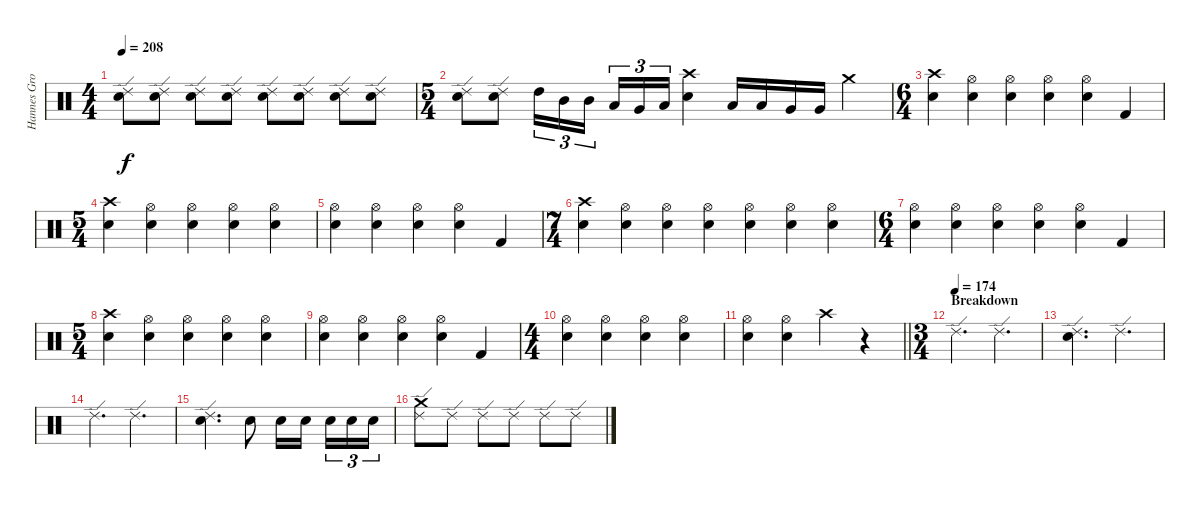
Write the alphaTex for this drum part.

\track ("Hannes Grossmann" "Hannes Gro") {instrument percussion}
\staff {score}
\articulation defaults
\ts (4 4)
\tempo 208
\clef neutral
\ks c
("Ride (edge) 2" "Electric Snare (hit)").8{dy f} ("Ride (edge) 2" "Electric Snare (hit)").8 ("Ride (edge) 2" "Electric Snare (hit)").8 ("Ride (edge) 2" "Electric Snare (hit)").8 ("Ride (edge) 2" "Electric Snare (hit)").8 ("Ride (edge) 2" "Electric Snare (hit)").8 ("Ride (edge) 2" "Electric Snare (hit)").8 ("Ride (edge) 2" "Electric Snare (hit)").8 |
\ts (5 4)
("Ride (edge) 2" "Electric Snare (hit)").8 ("Ride (edge) 2" "Electric Snare (hit)").8 "High Tom (hit)".16{tu (3 2)} "Mid Tom (hit)".16{tu (3 2)} "Mid Tom (hit)".16{tu (3 2) beam splitsecondary} "Low Tom (hit)".16{tu (3 2)} "Very Low Tom (hit)".16{tu (3 2)} "Low Floor Tom (hit)".16{tu (3 2)} ("Crash high (hit)" "Electric Snare (hit)").4 "Low Tom (hit)".16 "Low Tom (hit)".16 "Very Low Tom (hit)".16 "Very Low Tom (hit)".16 "Crash medium (hit)".4 |
\ts (6 4)
("Crash high (hit)" "Electric Snare (hit)").4 ("Hi-Hat (open)" "Electric Snare (hit)").4 ("Hi-Hat (open)" "Electric Snare (hit)").4 ("Hi-Hat (open)" "Electric Snare (hit)").4 ("Hi-Hat (open)" "Electric Snare (hit)").4 "Kick (hit) 2".4 |
\ts (5 4)
("Crash high (hit)" "Electric Snare (hit)").4 ("Hi-Hat (open)" "Electric Snare (hit)").4 ("Hi-Hat (open)" "Electric Snare (hit)").4 ("Hi-Hat (open)" "Electric Snare (hit)").4 ("Hi-Hat (open)" "Electric Snare (hit)").4 |
("Hi-Hat (open)" "Electric Snare (hit)").4 ("Hi-Hat (open)" "Electric Snare (hit)").4 ("Hi-Hat (open)" "Electric Snare (hit)").4 ("Hi-Hat (open)" "Electric Snare (hit)").4 "Kick (hit) 2".4 |
\ts (7 4)
("Crash high (hit)" "Electric Snare (hit)").4 ("Hi-Hat (open)" "Electric Snare (hit)").4 ("Hi-Hat (open)" "Electric Snare (hit)").4 ("Hi-Hat (open)" "Electric Snare (hit)").4 ("Hi-Hat (open)" "Electric Snare (hit)").4 ("Hi-Hat (open)" "Electric Snare (hit)").4 ("Hi-Hat (open)" "Electric Snare (hit)").4 |
\ts (6 4)
("Hi-Hat (open)" "Electric Snare (hit)").4 ("Hi-Hat (open)" "Electric Snare (hit)").4 ("Hi-Hat (open)" "Electric Snare (hit)").4 ("Hi-Hat (open)" "Electric Snare (hit)").4 ("Hi-Hat (open)" "Electric Snare (hit)").4 "Kick (hit) 2".4 |
\ts (5 4)
("Crash high (hit)" "Electric Snare (hit)").4 ("Hi-Hat (open)" "Electric Snare (hit)").4 ("Hi-Hat (open)" "Electric Snare (hit)").4 ("Hi-Hat (open)" "Electric Snare (hit)").4 ("Hi-Hat (open)" "Electric Snare (hit)").4 |
("Hi-Hat (open)" "Electric Snare (hit)").4 ("Hi-Hat (open)" "Electric Snare (hit)").4 ("Hi-Hat (open)" "Electric Snare (hit)").4 ("Hi-Hat (open)" "Electric Snare (hit)").4 "Kick (hit) 2".4 |
\ts (4 4)
("Hi-Hat (open)" "Electric Snare (hit)").4 ("Hi-Hat (open)" "Electric Snare (hit)").4 ("Hi-Hat (open)" "Electric Snare (hit)").4 ("Hi-Hat (open)" "Electric Snare (hit)").4 |
\barLineRight lightlight
("Hi-Hat (open)" "Electric Snare (hit)").4 ("Hi-Hat (open)" "Electric Snare (hit)").4 "Crash high (hit)".4 r.4 |
\ts (3 4)
\section ("" "Breakdown")
\tempo (174)
"Ride (edge) 2".4{d} "Ride (edge) 2".4{d} |
("Ride (edge) 2" "Electric Snare (hit)").4{d} "Ride (edge) 2".4{d} |
"Ride (edge) 2".4{d} "Ride (edge) 2".4{d} |
("Ride (edge) 2" "Electric Snare (hit)").4{d} "Electric Snare (hit)".8 "Electric Snare (hit)".16 "Electric Snare (hit)".16{beam splitsecondary} "Electric Snare (hit)".16{tu (3 2)} "Electric Snare (hit)".16{tu (3 2)} "Electric Snare (hit)".16{tu (3 2)} |
("Ride (edge) 2" "Crash medium (hit)").8 "Ride (edge) 2".8 "Ride (edge) 2".8 "Ride (edge) 2".8 "Ride (edge) 2".8 "Ride (edge) 2".8
